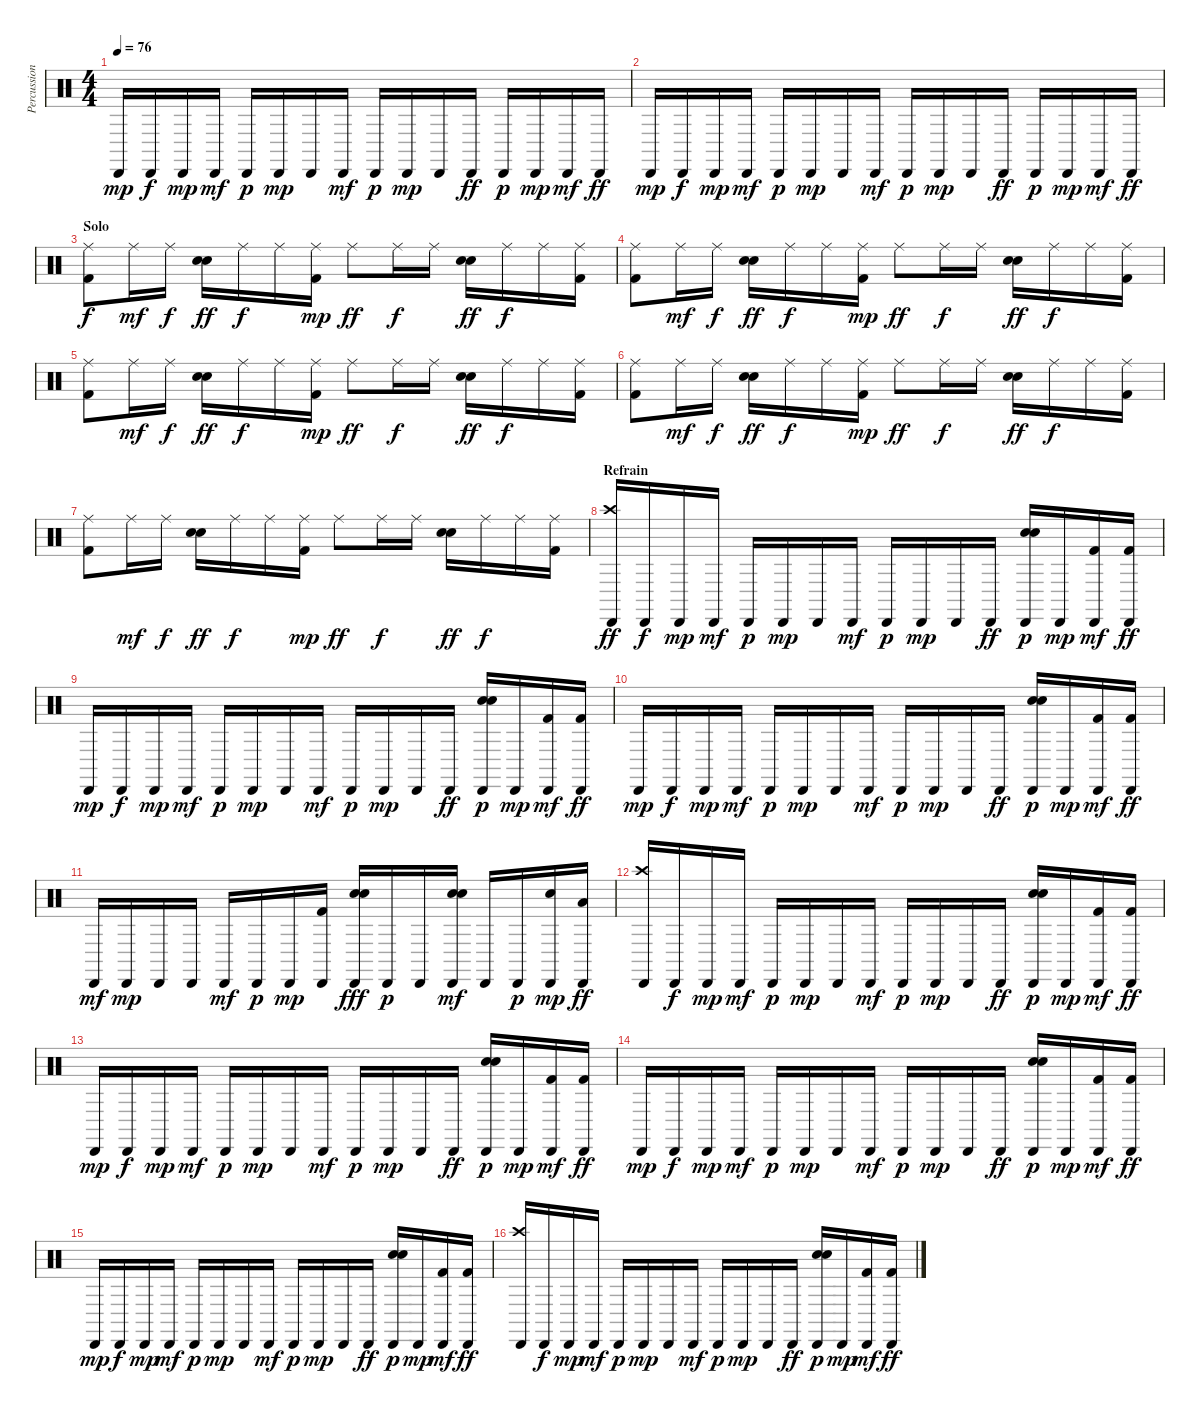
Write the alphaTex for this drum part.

\track ("Percussions" "Percussion") {instrument percussion}
\staff {score}
\articulation defaults
\ts (4 4)
\tempo 76
\clef neutral
\ks c "Cabasa (hit)".16{dy mp} "Cabasa (hit)".16{dy f} "Cabasa (hit)".16{dy mp} "Cabasa (hit)".16{dy mf} "Cabasa (hit)".16{dy p} "Cabasa (hit)".16{dy mp} "Cabasa (hit)".16 "Cabasa (hit)".16{dy mf} "Cabasa (hit)".16{dy p} "Cabasa (hit)".16{dy mp} "Cabasa (hit)".16 "Cabasa (hit)".16{dy ff} "Cabasa (hit)".16{dy p} "Cabasa (hit)".16{dy mp} "Cabasa (hit)".16{dy mf} "Cabasa (hit)".16{dy ff}
|
"Cabasa (hit)".16{dy mp} "Cabasa (hit)".16{dy f} "Cabasa (hit)".16{dy mp} "Cabasa (hit)".16{dy mf} "Cabasa (hit)".16{dy p} "Cabasa (hit)".16{dy mp} "Cabasa (hit)".16 "Cabasa (hit)".16{dy mf} "Cabasa (hit)".16{dy p} "Cabasa (hit)".16{dy mp} "Cabasa (hit)".16 "Cabasa (hit)".16{dy ff} "Cabasa (hit)".16{dy p} "Cabasa (hit)".16{dy mp} "Cabasa (hit)".16{dy mf} "Cabasa (hit)".16{dy ff} |
\section ("" "Solo")
("Ride (middle)" "Kick (hit) 2").8{dy f} "Ride (middle)".16{dy mf} "Ride (middle)".16{dy f} ("Electric Snare (hit)" "Snare (hit) 2").16{dy ff} "Ride (middle)".16{dy f} "Ride (middle)".16 ("Ride (middle)" "Kick (hit) 2").16{dy mp} "Ride (middle)".8{dy ff} "Ride (middle)".16{dy f} "Ride (middle)".16 ("Electric Snare (hit)" "Snare (hit) 2").16{dy ff} "Ride (middle)".16{dy f} "Ride (middle)".16 ("Ride (middle)" "Kick (hit) 2").16 |
("Ride (middle)" "Kick (hit) 2").8 "Ride (middle)".16{dy mf} "Ride (middle)".16{dy f} ("Electric Snare (hit)" "Snare (hit) 2").16{dy ff} "Ride (middle)".16{dy f} "Ride (middle)".16 ("Ride (middle)" "Kick (hit) 2").16{dy mp} "Ride (middle)".8{dy ff} "Ride (middle)".16{dy f} "Ride (middle)".16 ("Electric Snare (hit)" "Snare (hit) 2").16{dy ff} "Ride (middle)".16{dy f} "Ride (middle)".16 ("Ride (middle)" "Kick (hit) 2").16 |
("Ride (middle)" "Kick (hit) 2").8 "Ride (middle)".16{dy mf} "Ride (middle)".16{dy f} ("Electric Snare (hit)" "Snare (hit) 2").16{dy ff} "Ride (middle)".16{dy f} "Ride (middle)".16 ("Ride (middle)" "Kick (hit) 2").16{dy mp} "Ride (middle)".8{dy ff} "Ride (middle)".16{dy f} "Ride (middle)".16 ("Electric Snare (hit)" "Snare (hit) 2").16{dy ff} "Ride (middle)".16{dy f} "Ride (middle)".16 ("Ride (middle)" "Kick (hit) 2").16 |
("Ride (middle)" "Kick (hit) 2").8 "Ride (middle)".16{dy mf} "Ride (middle)".16{dy f} ("Electric Snare (hit)" "Snare (hit) 2").16{dy ff} "Ride (middle)".16{dy f} "Ride (middle)".16 ("Ride (middle)" "Kick (hit) 2").16{dy mp} "Ride (middle)".8{dy ff} "Ride (middle)".16{dy f} "Ride (middle)".16 ("Electric Snare (hit)" "Snare (hit) 2").16{dy ff} "Ride (middle)".16{dy f} "Ride (middle)".16 ("Ride (middle)" "Kick (hit) 2").16 |
("Ride (middle)" "Kick (hit) 2").8 "Ride (middle)".16{dy mf} "Ride (middle)".16{dy f} ("Electric Snare (hit)" "Snare (hit) 2").16{dy ff} "Ride (middle)".16{dy f} "Ride (middle)".16 ("Ride (middle)" "Kick (hit) 2").16{dy mp} "Ride (middle)".8{dy ff} "Ride (middle)".16{dy f} "Ride (middle)".16 ("Electric Snare (hit)" "Snare (hit) 2").16{dy ff} "Ride (middle)".16{dy f} "Ride (middle)".16 ("Ride (middle)" "Kick (hit) 2").16 |
\section ("" "Refrain")
("Cabasa (hit)" "Crash high (hit)").16{dy ff} "Cabasa (hit)".16{dy f} "Cabasa (hit)".16{dy mp} "Cabasa (hit)".16{dy mf} "Cabasa (hit)".16{dy p} "Cabasa (hit)".16{dy mp} "Cabasa (hit)".16 "Cabasa (hit)".16{dy mf} "Cabasa (hit)".16{dy p} "Cabasa (hit)".16{dy mp} "Cabasa (hit)".16 "Cabasa (hit)".16{dy ff} ("Cabasa (hit)" "Electric Snare (hit)" "Snare (hit) 2").16{dy p} "Cabasa (hit)".16{dy mp} ("Cabasa (hit)" "Kick (hit) 2").16{dy mf} ("Cabasa (hit)" "Kick (hit) 2").16{dy ff} |
"Cabasa (hit)".16{dy mp} "Cabasa (hit)".16{dy f} "Cabasa (hit)".16{dy mp} "Cabasa (hit)".16{dy mf} "Cabasa (hit)".16{dy p} "Cabasa (hit)".16{dy mp} "Cabasa (hit)".16 "Cabasa (hit)".16{dy mf} "Cabasa (hit)".16{dy p} "Cabasa (hit)".16{dy mp} "Cabasa (hit)".16 "Cabasa (hit)".16{dy ff} ("Cabasa (hit)" "Electric Snare (hit)" "Snare (hit) 2").16{dy p} "Cabasa (hit)".16{dy mp} ("Cabasa (hit)" "Kick (hit) 2").16{dy mf} ("Cabasa (hit)" "Kick (hit) 2").16{dy ff} |
"Cabasa (hit)".16{dy mp} "Cabasa (hit)".16{dy f} "Cabasa (hit)".16{dy mp} "Cabasa (hit)".16{dy mf} "Cabasa (hit)".16{dy p} "Cabasa (hit)".16{dy mp} "Cabasa (hit)".16 "Cabasa (hit)".16{dy mf} "Cabasa (hit)".16{dy p} "Cabasa (hit)".16{dy mp} "Cabasa (hit)".16 "Cabasa (hit)".16{dy ff} ("Cabasa (hit)" "Electric Snare (hit)" "Snare (hit) 2").16{dy p} "Cabasa (hit)".16{dy mp} ("Cabasa (hit)" "Kick (hit) 2").16{dy mf} ("Cabasa (hit)" "Kick (hit) 2").16{dy ff} |
"Cabasa (hit)".16{dy mf} "Cabasa (hit)".16{dy mp} "Cabasa (hit)".16 "Cabasa (hit)".16 "Cabasa (hit)".16{dy mf} "Cabasa (hit)".16{dy p} "Cabasa (hit)".16{dy mp} ("Cabasa (hit)" "Kick (hit) 2").16 ("Cabasa (hit)" "Electric Snare (hit)" "Snare (hit) 2").16{dy fff} "Cabasa (hit)".16{dy p} "Cabasa (hit)".16 ("Cabasa (hit)" "Electric Snare (hit)" "Snare (hit) 2").16{dy mf} "Cabasa (hit)".16 "Cabasa (hit)".16{dy p} ("Cabasa (hit)" "Electric Snare (hit)").16{dy mp} ("Cabasa (hit)" "Low Floor Tom (hit)").16{dy ff} |
("Cabasa (hit)" "Crash high (hit)").16 "Cabasa (hit)".16{dy f} "Cabasa (hit)".16{dy mp} "Cabasa (hit)".16{dy mf} "Cabasa (hit)".16{dy p} "Cabasa (hit)".16{dy mp} "Cabasa (hit)".16 "Cabasa (hit)".16{dy mf} "Cabasa (hit)".16{dy p} "Cabasa (hit)".16{dy mp} "Cabasa (hit)".16 "Cabasa (hit)".16{dy ff} ("Cabasa (hit)" "Electric Snare (hit)" "Snare (hit) 2").16{dy p} "Cabasa (hit)".16{dy mp} ("Cabasa (hit)" "Kick (hit) 2").16{dy mf} ("Cabasa (hit)" "Kick (hit) 2").16{dy ff} |
"Cabasa (hit)".16{dy mp} "Cabasa (hit)".16{dy f} "Cabasa (hit)".16{dy mp} "Cabasa (hit)".16{dy mf} "Cabasa (hit)".16{dy p} "Cabasa (hit)".16{dy mp} "Cabasa (hit)".16 "Cabasa (hit)".16{dy mf} "Cabasa (hit)".16{dy p} "Cabasa (hit)".16{dy mp} "Cabasa (hit)".16 "Cabasa (hit)".16{dy ff} ("Cabasa (hit)" "Electric Snare (hit)" "Snare (hit) 2").16{dy p} "Cabasa (hit)".16{dy mp} ("Cabasa (hit)" "Kick (hit) 2").16{dy mf} ("Cabasa (hit)" "Kick (hit) 2").16{dy ff} |
"Cabasa (hit)".16{dy mp} "Cabasa (hit)".16{dy f} "Cabasa (hit)".16{dy mp} "Cabasa (hit)".16{dy mf} "Cabasa (hit)".16{dy p} "Cabasa (hit)".16{dy mp} "Cabasa (hit)".16 "Cabasa (hit)".16{dy mf} "Cabasa (hit)".16{dy p} "Cabasa (hit)".16{dy mp} "Cabasa (hit)".16 "Cabasa (hit)".16{dy ff} ("Cabasa (hit)" "Electric Snare (hit)" "Snare (hit) 2").16{dy p} "Cabasa (hit)".16{dy mp} ("Cabasa (hit)" "Kick (hit) 2").16{dy mf} ("Cabasa (hit)" "Kick (hit) 2").16{dy ff} |
"Cabasa (hit)".16{dy mp} "Cabasa (hit)".16{dy f} "Cabasa (hit)".16{dy mp} "Cabasa (hit)".16{dy mf} "Cabasa (hit)".16{dy p} "Cabasa (hit)".16{dy mp} "Cabasa (hit)".16 "Cabasa (hit)".16{dy mf} "Cabasa (hit)".16{dy p} "Cabasa (hit)".16{dy mp} "Cabasa (hit)".16 "Cabasa (hit)".16{dy ff} ("Cabasa (hit)" "Electric Snare (hit)" "Snare (hit) 2").16{dy p} "Cabasa (hit)".16{dy mp} ("Cabasa (hit)" "Kick (hit) 2").16{dy mf} ("Cabasa (hit)" "Kick (hit) 2").16{dy ff} |
("Cabasa (hit)" "Crash high (hit)").16 "Cabasa (hit)".16{dy f} "Cabasa (hit)".16{dy mp} "Cabasa (hit)".16{dy mf} "Cabasa (hit)".16{dy p} "Cabasa (hit)".16{dy mp} "Cabasa (hit)".16 "Cabasa (hit)".16{dy mf} "Cabasa (hit)".16{dy p} "Cabasa (hit)".16{dy mp} "Cabasa (hit)".16 "Cabasa (hit)".16{dy ff} ("Cabasa (hit)" "Electric Snare (hit)" "Snare (hit) 2").16{dy p} "Cabasa (hit)".16{dy mp} ("Cabasa (hit)" "Kick (hit) 2").16{dy mf} ("Cabasa (hit)" "Kick (hit) 2").16{dy ff}
